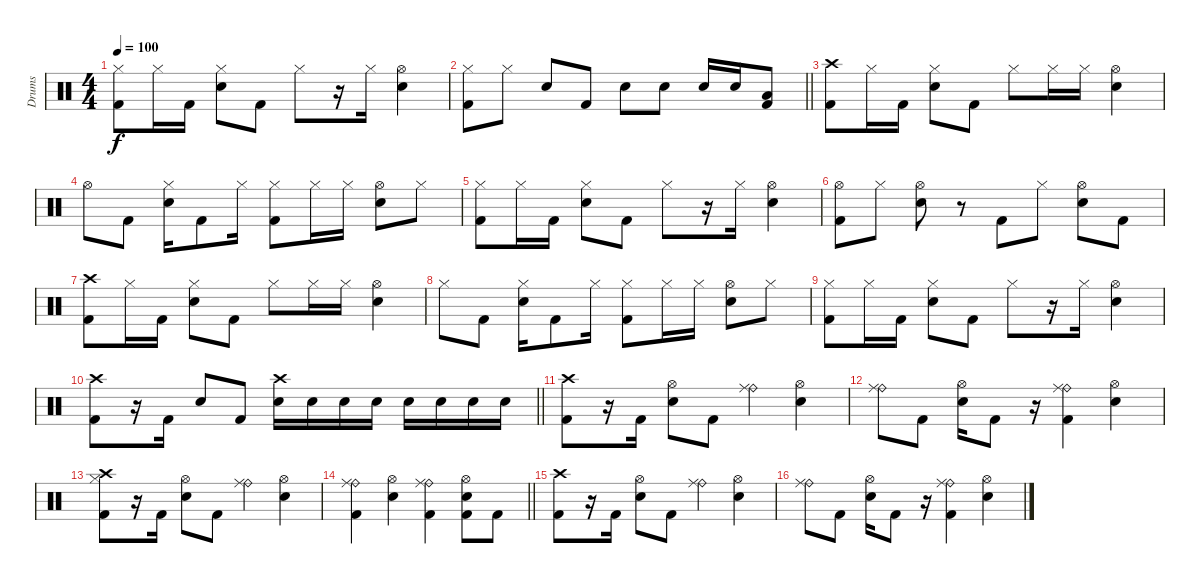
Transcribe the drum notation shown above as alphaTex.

\track ("Drums" "Drums") {instrument percussion}
\staff {score}
\articulation defaults
\ts (4 4)
\tempo 100
\clef neutral
\ks c
("Hi-Hat (closed)" "Kick (hit) 2").8{dy f} "Hi-Hat (closed)".16 "Kick (hit) 2".16 ("Hi-Hat (closed)" "Electric Snare (hit)").8 "Kick (hit) 2".8 "Hi-Hat (closed)".8 r.16 "Hi-Hat (closed)".16 ("Hi-Hat (open)" "Electric Snare (hit)").4 |
\barLineRight lightlight
("Hi-Hat (closed)" "Kick (hit) 2").8 "Hi-Hat (closed)".8 "Electric Snare (hit)".8 "Kick (hit) 2".8 "Electric Snare (hit)".8 "Electric Snare (hit)".8 "Electric Snare (hit)".16 "Electric Snare (hit)".16 ("Low Tom (hit)" "Kick (hit) 2").8 |
("Crash high (hit)" "Kick (hit) 2").8 "Hi-Hat (closed)".16 "Kick (hit) 2".16 ("Hi-Hat (closed)" "Electric Snare (hit)").8 "Kick (hit) 2".8 "Hi-Hat (closed)".8 "Hi-Hat (closed)".16 "Hi-Hat (closed)".16 ("Hi-Hat (open)" "Electric Snare (hit)").4 |
"Hi-Hat (open)".8 "Kick (hit) 2".8 ("Hi-Hat (closed)" "Electric Snare (hit)").16 "Kick (hit) 2".8 "Hi-Hat (closed)".16 ("Hi-Hat (closed)" "Kick (hit) 2").8 "Hi-Hat (closed)".16 "Hi-Hat (closed)".16 ("Hi-Hat (open)" "Electric Snare (hit)").8 "Hi-Hat (closed)".8 |
("Hi-Hat (closed)" "Kick (hit) 2").8 "Hi-Hat (closed)".16 "Kick (hit) 2".16 ("Hi-Hat (closed)" "Electric Snare (hit)").8 "Kick (hit) 2".8 "Hi-Hat (closed)".8 r.16 "Hi-Hat (closed)".16 ("Hi-Hat (open)" "Electric Snare (hit)").4 |
("Hi-Hat (open)" "Kick (hit) 2").8 "Hi-Hat (closed)".8 ("Hi-Hat (open)" "Electric Snare (hit)").8 r.8 "Kick (hit) 2".8 "Hi-Hat (closed)".8 ("Hi-Hat (open)" "Electric Snare (hit)").8 "Kick (hit) 2".8 |
("Crash high (hit)" "Kick (hit) 2").8 "Hi-Hat (closed)".16 "Kick (hit) 2".16 ("Hi-Hat (closed)" "Electric Snare (hit)").8 "Kick (hit) 2".8 "Hi-Hat (closed)".8 "Hi-Hat (closed)".16 "Hi-Hat (closed)".16 ("Hi-Hat (open)" "Electric Snare (hit)").4 |
"Hi-Hat (closed)".8 "Kick (hit) 2".8 ("Hi-Hat (closed)" "Electric Snare (hit)").16 "Kick (hit) 2".8 "Hi-Hat (closed)".16 ("Hi-Hat (closed)" "Kick (hit) 2").8 "Hi-Hat (closed)".16 "Hi-Hat (closed)".16 ("Hi-Hat (open)" "Electric Snare (hit)").8 "Hi-Hat (closed)".8 |
("Hi-Hat (closed)" "Kick (hit) 2").8 "Hi-Hat (closed)".16 "Kick (hit) 2".16 ("Hi-Hat (closed)" "Electric Snare (hit)").8 "Kick (hit) 2".8 "Hi-Hat (closed)".8 r.16 "Hi-Hat (closed)".16 ("Hi-Hat (open)" "Electric Snare (hit)").4 |
\barLineRight lightlight
("Crash high (hit)" "Kick (hit) 2").8 r.16 "Kick (hit) 2".16 "Electric Snare (hit)".8 "Kick (hit) 2".8 ("Crash high (hit)" "Electric Snare (hit)").16 "Electric Snare (hit)".16 "Electric Snare (hit)".16 "Electric Snare (hit)".16 "Electric Snare (hit)".16 "Electric Snare (hit)".16 "Electric Snare (hit)".16 "Electric Snare (hit)".16 |
("Crash high (hit)" "Kick (hit) 2").8 r.16 "Kick (hit) 2".16 ("Hi-Hat (open)" "Electric Snare (hit)").8 "Kick (hit) 2".8 ("Ride (bell)" "Ride (middle)").4 ("Hi-Hat (open)" "Electric Snare (hit)").4 |
("Ride (bell)" "Ride (middle)").8 "Kick (hit) 2".8 ("Hi-Hat (open)" "Electric Snare (hit)").16 "Kick (hit) 2".8 r.16 ("Ride (bell)" "Ride (middle)" "Kick (hit) 2").4 ("Hi-Hat (open)" "Electric Snare (hit)").4 |
("Crash high (hit)" "Hi-Hat (closed)" "Kick (hit) 2").8 r.16 "Kick (hit) 2".16 ("Hi-Hat (open)" "Electric Snare (hit)").8 "Kick (hit) 2".8 ("Ride (bell)" "Ride (middle)").4 ("Hi-Hat (open)" "Electric Snare (hit)").4 |
\barLineRight lightlight
("Ride (bell)" "Ride (middle)" "Kick (hit) 2").4 ("Hi-Hat (open)" "Electric Snare (hit)").4 ("Ride (bell)" "Ride (middle)" "Kick (hit) 2").4 ("Hi-Hat (open)" "Electric Snare (hit)" "Kick (hit) 2").8 "Kick (hit) 2".8 |
("Crash high (hit)" "Kick (hit) 2").8 r.16 "Kick (hit) 2".16 ("Hi-Hat (open)" "Electric Snare (hit)").8 "Kick (hit) 2".8 ("Ride (bell)" "Ride (middle)").4 ("Hi-Hat (open)" "Electric Snare (hit)").4 |
("Ride (bell)" "Ride (middle)").8 "Kick (hit) 2".8 ("Hi-Hat (open)" "Electric Snare (hit)").16 "Kick (hit) 2".8 r.16 ("Ride (bell)" "Ride (middle)" "Kick (hit) 2").4 ("Hi-Hat (open)" "Electric Snare (hit)").4
